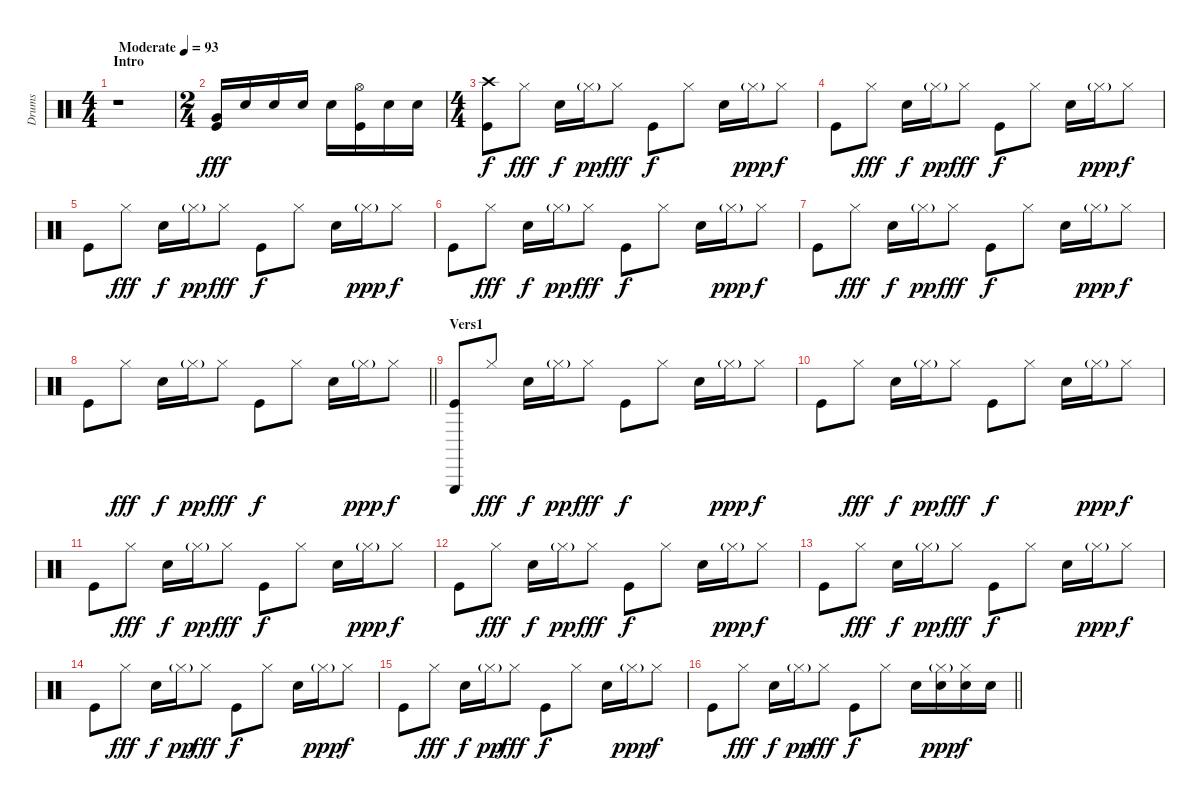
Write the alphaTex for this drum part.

\track ("Drums" "Drums") {instrument percussion}
\staff {score}
\articulation defaults
\ts (4 4)
\section ("" "Intro")
\tempo (93 "Moderate")
\clef neutral
\ks c
r.1{dy fff} |
\ts (2 4)
("Very Low Tom (hit)" "Kick (hit)").16 "Electric Snare (hit)".16 "Snare (hit) 2".16 "Electric Snare (hit)".16 "Electric Snare (hit)".16 ("Hi-Hat (open)" "Kick (hit)").16 "Snare (hit) 2".16 "Snare (hit) 2".16 |
\ts (4 4)
("Crash high (hit)" "Kick (hit)").8{dy f} "Hi-Hat (closed)".8{dy fff} "Snare (hit) 2".16{dy f} "Hi-Hat (closed)"{g}.16{dy pp} "Hi-Hat (closed)".8{dy fff} "Kick (hit)".8{dy f} "Hi-Hat (closed)".8 "Snare (hit) 2".16 "Hi-Hat (closed)"{g}.16{dy ppp} "Hi-Hat (closed)".8{dy f} |
"Kick (hit)".8 "Hi-Hat (closed)".8{dy fff} "Snare (hit) 2".16{dy f} "Hi-Hat (closed)"{g}.16{dy pp} "Hi-Hat (closed)".8{dy fff} "Kick (hit)".8{dy f} "Hi-Hat (closed)".8 "Snare (hit) 2".16 "Hi-Hat (closed)"{g}.16{dy ppp} "Hi-Hat (closed)".8{dy f} |
"Kick (hit)".8 "Hi-Hat (closed)".8{dy fff} "Snare (hit) 2".16{dy f} "Hi-Hat (closed)"{g}.16{dy pp} "Hi-Hat (closed)".8{dy fff} "Kick (hit)".8{dy f} "Hi-Hat (closed)".8 "Snare (hit) 2".16 "Hi-Hat (closed)"{g}.16{dy ppp} "Hi-Hat (closed)".8{dy f} |
"Kick (hit)".8 "Hi-Hat (closed)".8{dy fff} "Snare (hit) 2".16{dy f} "Hi-Hat (closed)"{g}.16{dy pp} "Hi-Hat (closed)".8{dy fff} "Kick (hit)".8{dy f} "Hi-Hat (closed)".8 "Snare (hit) 2".16 "Hi-Hat (closed)"{g}.16{dy ppp} "Hi-Hat (closed)".8{dy f} |
"Kick (hit)".8 "Hi-Hat (closed)".8{dy fff} "Snare (hit) 2".16{dy f} "Hi-Hat (closed)"{g}.16{dy pp} "Hi-Hat (closed)".8{dy fff} "Kick (hit)".8{dy f} "Hi-Hat (closed)".8 "Snare (hit) 2".16 "Hi-Hat (closed)"{g}.16{dy ppp} "Hi-Hat (closed)".8{dy f} |
\barLineRight lightlight "Kick (hit)".8 "Hi-Hat (closed)".8{dy fff} "Snare (hit) 2".16{dy f} "Hi-Hat (closed)"{g}.16{dy pp} "Hi-Hat (closed)".8{dy fff} "Kick (hit)".8{dy f} "Hi-Hat (closed)".8 "Snare (hit) 2".16 "Hi-Hat (closed)"{g}.16{dy ppp} "Hi-Hat (closed)".8{dy f}
|
\section ("" "Vers1")
("Triangle (hit)" "Kick (hit)").8 "Hi-Hat (closed)".8{dy fff} "Snare (hit) 2".16{dy f} "Hi-Hat (closed)"{g}.16{dy pp} "Hi-Hat (closed)".8{dy fff} "Kick (hit)".8{dy f} "Hi-Hat (closed)".8 "Snare (hit) 2".16 "Hi-Hat (closed)"{g}.16{dy ppp} "Hi-Hat (closed)".8{dy f} |
"Kick (hit)".8 "Hi-Hat (closed)".8{dy fff} "Snare (hit) 2".16{dy f} "Hi-Hat (closed)"{g}.16{dy pp} "Hi-Hat (closed)".8{dy fff} "Kick (hit)".8{dy f} "Hi-Hat (closed)".8 "Snare (hit) 2".16 "Hi-Hat (closed)"{g}.16{dy ppp} "Hi-Hat (closed)".8{dy f} |
"Kick (hit)".8 "Hi-Hat (closed)".8{dy fff} "Snare (hit) 2".16{dy f} "Hi-Hat (closed)"{g}.16{dy pp} "Hi-Hat (closed)".8{dy fff} "Kick (hit)".8{dy f} "Hi-Hat (closed)".8 "Snare (hit) 2".16 "Hi-Hat (closed)"{g}.16{dy ppp} "Hi-Hat (closed)".8{dy f} |
"Kick (hit)".8 "Hi-Hat (closed)".8{dy fff} "Snare (hit) 2".16{dy f} "Hi-Hat (closed)"{g}.16{dy pp} "Hi-Hat (closed)".8{dy fff} "Kick (hit)".8{dy f} "Hi-Hat (closed)".8 "Snare (hit) 2".16 "Hi-Hat (closed)"{g}.16{dy ppp} "Hi-Hat (closed)".8{dy f} |
"Kick (hit)".8 "Hi-Hat (closed)".8{dy fff} "Snare (hit) 2".16{dy f} "Hi-Hat (closed)"{g}.16{dy pp} "Hi-Hat (closed)".8{dy fff} "Kick (hit)".8{dy f} "Hi-Hat (closed)".8 "Snare (hit) 2".16 "Hi-Hat (closed)"{g}.16{dy ppp} "Hi-Hat (closed)".8{dy f} |
"Kick (hit)".8 "Hi-Hat (closed)".8{dy fff} "Snare (hit) 2".16{dy f} "Hi-Hat (closed)"{g}.16{dy pp} "Hi-Hat (closed)".8{dy fff} "Kick (hit)".8{dy f} "Hi-Hat (closed)".8 "Snare (hit) 2".16 "Hi-Hat (closed)"{g}.16{dy ppp} "Hi-Hat (closed)".8{dy f} |
"Kick (hit)".8 "Hi-Hat (closed)".8{dy fff} "Snare (hit) 2".16{dy f} "Hi-Hat (closed)"{g}.16{dy pp} "Hi-Hat (closed)".8{dy fff} "Kick (hit)".8{dy f} "Hi-Hat (closed)".8 "Snare (hit) 2".16 "Hi-Hat (closed)"{g}.16{dy ppp} "Hi-Hat (closed)".8{dy f} |
\barLineRight lightlight "Kick (hit)".8 "Hi-Hat (closed)".8{dy fff} "Snare (hit) 2".16{dy f} "Hi-Hat (closed)"{g}.16{dy pp} "Hi-Hat (closed)".8{dy fff} "Kick (hit)".8{dy f} "Hi-Hat (closed)".8 "Electric Snare (hit)".16
("Electric Snare (hit)" "Hi-Hat (closed)"{g}).16{dy ppp} ("Electric Snare (hit)" "Hi-Hat (closed)").16{dy f} "Electric Snare (hit)".16
